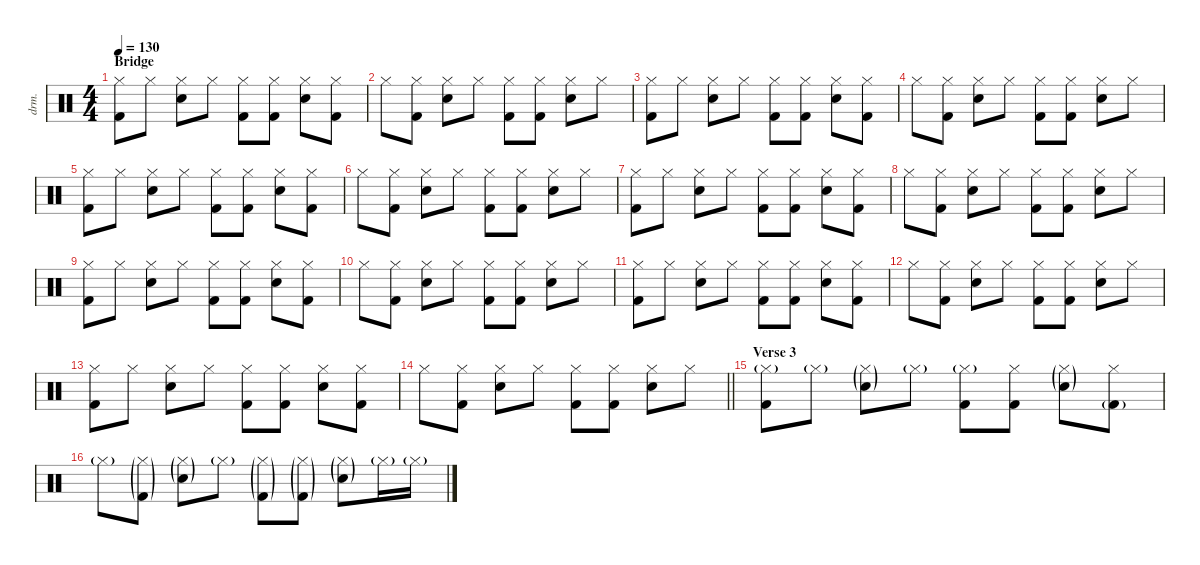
\defaultSystemsLayout 4
\hideDynamics
\bracketExtendMode nobrackets
\otherSystemsTrackNameOrientation horizontal
\track ("Jimmy" "drm.") {instrument percussion}
\staff {score}
\articulation defaults
\ts (4 4)
\section ("" "Bridge")
\tempo 130
\clef neutral
\ks c
("Hi-Hat (closed)" "Kick (hit) 2").8{dy f beam Down} "Hi-Hat (closed)".8{beam Down} ("Hi-Hat (closed)" "Snare (hit) 2").8{beam Down} "Hi-Hat (closed)".8{beam Down} ("Hi-Hat (closed)" "Kick (hit) 2").8{beam Down} ("Hi-Hat (closed)" "Kick (hit) 2").8{beam Down} ("Hi-Hat (closed)" "Snare (hit) 2").8{beam Down} ("Hi-Hat (closed)" "Kick (hit) 2").8{beam Down} |
"Hi-Hat (closed)".8{beam Down} ("Hi-Hat (closed)" "Kick (hit) 2").8{beam Down} ("Hi-Hat (closed)" "Snare (hit) 2").8{beam Down} "Hi-Hat (closed)".8{beam Down} ("Hi-Hat (closed)" "Kick (hit) 2").8{beam Down} ("Hi-Hat (closed)" "Kick (hit) 2").8{beam Down} ("Hi-Hat (closed)" "Snare (hit) 2").8{beam Down} "Hi-Hat (closed)".8{beam Down} |
("Hi-Hat (closed)" "Kick (hit) 2").8{beam Down} "Hi-Hat (closed)".8{beam Down} ("Hi-Hat (closed)" "Snare (hit) 2").8{beam Down} "Hi-Hat (closed)".8{beam Down} ("Hi-Hat (closed)" "Kick (hit) 2").8{beam Down} ("Hi-Hat (closed)" "Kick (hit) 2").8{beam Down} ("Hi-Hat (closed)" "Snare (hit) 2").8{beam Down} ("Hi-Hat (closed)" "Kick (hit) 2").8{beam Down} |
"Hi-Hat (closed)".8{beam Down} ("Hi-Hat (closed)" "Kick (hit) 2").8{beam Down} ("Hi-Hat (closed)" "Snare (hit) 2").8{beam Down} "Hi-Hat (closed)".8{beam Down} ("Hi-Hat (closed)" "Kick (hit) 2").8{beam Down} ("Hi-Hat (closed)" "Kick (hit) 2").8{beam Down} ("Hi-Hat (closed)" "Snare (hit) 2").8{beam Down} "Hi-Hat (closed)".8{beam Down} |
("Hi-Hat (closed)" "Kick (hit) 2").8{beam Down} "Hi-Hat (closed)".8{beam Down} ("Hi-Hat (closed)" "Snare (hit) 2").8{beam Down} "Hi-Hat (closed)".8{beam Down} ("Hi-Hat (closed)" "Kick (hit) 2").8{beam Down} ("Hi-Hat (closed)" "Kick (hit) 2").8{beam Down} ("Hi-Hat (closed)" "Snare (hit) 2").8{beam Down} ("Hi-Hat (closed)" "Kick (hit) 2").8{beam Down} |
"Hi-Hat (closed)".8{beam Down} ("Hi-Hat (closed)" "Kick (hit) 2").8{beam Down} ("Hi-Hat (closed)" "Snare (hit) 2").8{beam Down} "Hi-Hat (closed)".8{beam Down} ("Hi-Hat (closed)" "Kick (hit) 2").8{beam Down} ("Hi-Hat (closed)" "Kick (hit) 2").8{beam Down} ("Hi-Hat (closed)" "Snare (hit) 2").8{beam Down} "Hi-Hat (closed)".8{beam Down} |
("Hi-Hat (closed)" "Kick (hit) 2").8{beam Down} "Hi-Hat (closed)".8{beam Down} ("Hi-Hat (closed)" "Snare (hit) 2").8{beam Down} "Hi-Hat (closed)".8{beam Down} ("Hi-Hat (closed)" "Kick (hit) 2").8{beam Down} ("Hi-Hat (closed)" "Kick (hit) 2").8{beam Down} ("Hi-Hat (closed)" "Snare (hit) 2").8{beam Down} ("Hi-Hat (closed)" "Kick (hit) 2").8{beam Down} |
"Hi-Hat (closed)".8{beam Down} ("Hi-Hat (closed)" "Kick (hit) 2").8{beam Down} ("Hi-Hat (closed)" "Snare (hit) 2").8{beam Down} "Hi-Hat (closed)".8{beam Down} ("Hi-Hat (closed)" "Kick (hit) 2").8{beam Down} ("Hi-Hat (closed)" "Kick (hit) 2").8{beam Down} ("Hi-Hat (closed)" "Snare (hit) 2").8{beam Down} "Hi-Hat (closed)".8{beam Down} |
("Hi-Hat (closed)" "Kick (hit) 2").8{beam Down} "Hi-Hat (closed)".8{beam Down} ("Hi-Hat (closed)" "Snare (hit) 2").8{beam Down} "Hi-Hat (closed)".8{beam Down} ("Hi-Hat (closed)" "Kick (hit) 2").8{beam Down} ("Hi-Hat (closed)" "Kick (hit) 2").8{beam Down} ("Hi-Hat (closed)" "Snare (hit) 2").8{beam Down} ("Hi-Hat (closed)" "Kick (hit) 2").8{beam Down} |
"Hi-Hat (closed)".8{beam Down} ("Hi-Hat (closed)" "Kick (hit) 2").8{beam Down} ("Hi-Hat (closed)" "Snare (hit) 2").8{beam Down} "Hi-Hat (closed)".8{beam Down} ("Hi-Hat (closed)" "Kick (hit) 2").8{beam Down} ("Hi-Hat (closed)" "Kick (hit) 2").8{beam Down} ("Hi-Hat (closed)" "Snare (hit) 2").8{beam Down} "Hi-Hat (closed)".8{beam Down} |
("Hi-Hat (closed)" "Kick (hit) 2").8{beam Down} "Hi-Hat (closed)".8{beam Down} ("Hi-Hat (closed)" "Snare (hit) 2").8{beam Down} "Hi-Hat (closed)".8{beam Down} ("Hi-Hat (closed)" "Kick (hit) 2").8{beam Down} ("Hi-Hat (closed)" "Kick (hit) 2").8{beam Down} ("Hi-Hat (closed)" "Snare (hit) 2").8{beam Down} ("Hi-Hat (closed)" "Kick (hit) 2").8{beam Down} |
"Hi-Hat (closed)".8{beam Down} ("Hi-Hat (closed)" "Kick (hit) 2").8{beam Down} ("Hi-Hat (closed)" "Snare (hit) 2").8{beam Down} "Hi-Hat (closed)".8{beam Down} ("Hi-Hat (closed)" "Kick (hit) 2").8{beam Down} ("Hi-Hat (closed)" "Kick (hit) 2").8{beam Down} ("Hi-Hat (closed)" "Snare (hit) 2").8{beam Down} "Hi-Hat (closed)".8{beam Down} |
("Hi-Hat (closed)" "Kick (hit) 2").8{beam Down} "Hi-Hat (closed)".8{beam Down} ("Hi-Hat (closed)" "Snare (hit) 2").8{beam Down} "Hi-Hat (closed)".8{beam Down} ("Hi-Hat (closed)" "Kick (hit) 2").8{beam Down} ("Hi-Hat (closed)" "Kick (hit) 2").8{beam Down} ("Hi-Hat (closed)" "Snare (hit) 2").8{beam Down} ("Hi-Hat (closed)" "Kick (hit) 2").8{beam Down} |
\barLineRight lightlight "Hi-Hat (closed)".8{beam Down}
("Hi-Hat (closed)" "Kick (hit) 2").8{beam Down} ("Hi-Hat (closed)" "Snare (hit) 2").8{beam Down} "Hi-Hat (closed)".8{beam Down} ("Hi-Hat (closed)" "Kick (hit) 2").8{beam Down} ("Hi-Hat (closed)" "Kick (hit) 2").8{beam Down} ("Hi-Hat (closed)" "Snare (hit) 2").8{beam Down} "Hi-Hat (closed)".8{beam Down} |
\section ("" "Verse 3")
("Hi-Hat (closed)"{g} "Kick (hit) 2").8{beam Down} "Hi-Hat (closed)"{g}.8{dy mf beam Down} ("Hi-Hat (closed)"{g} "Snare (hit) 2"{g}).8{beam Down} "Hi-Hat (closed)"{g}.8{beam Down} ("Hi-Hat (closed)"{g} "Kick (hit) 2").8{dy f beam Down} ("Hi-Hat (closed)" "Kick (hit) 2").8{beam Down} ("Hi-Hat (closed)"{g} "Snare (hit) 2"{g}).8{dy mf beam Down} ("Hi-Hat (closed)" "Kick (hit) 2"{g}).8{dy f beam Down} |
"Hi-Hat (closed)"{g}.8{dy mf beam Down} ("Hi-Hat (closed)"{g} "Kick (hit) 2"{g}).8{beam Down} ("Hi-Hat (closed)"{g} "Snare (hit) 2"{g}).8{beam Down} "Hi-Hat (closed)"{g}.8{beam Down} ("Hi-Hat (closed)"{g} "Kick (hit) 2"{g}).8{beam Down} ("Hi-Hat (closed)"{g} "Kick (hit) 2"{g}).8{beam Down} ("Hi-Hat (closed)"{g} "Snare (hit) 2"{g}).8{beam Down} "Hi-Hat (closed)"{g}.16{beam Down} "Hi-Hat (closed)"{g}.16{beam Down}
